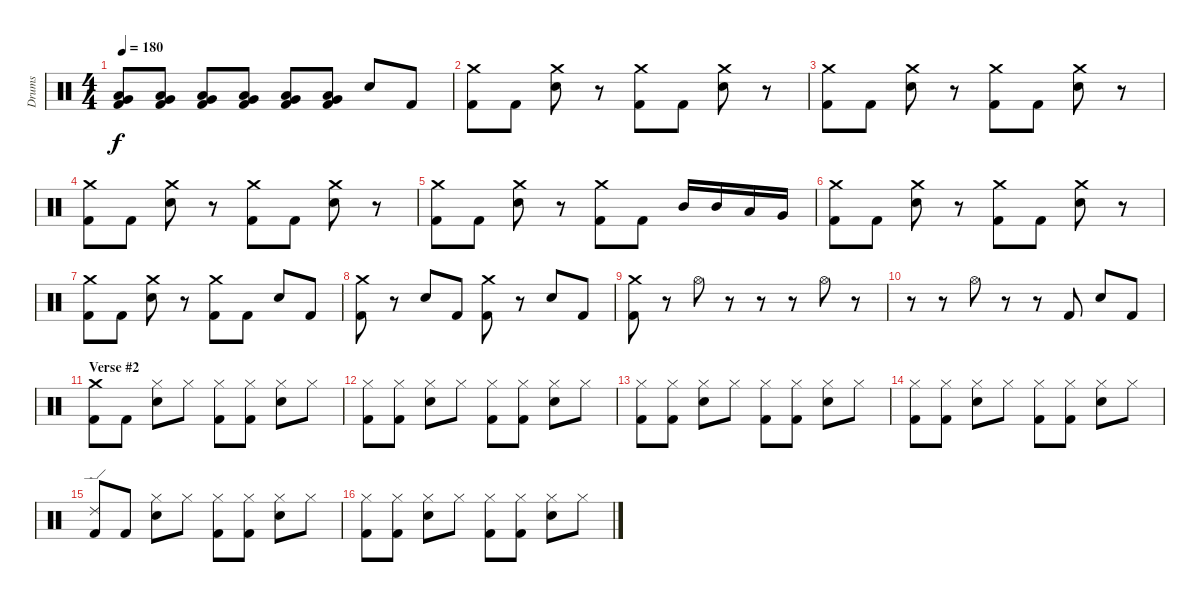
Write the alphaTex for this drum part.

\track ("Drums" "Drums") {instrument percussion}
\staff {score}
\articulation defaults
\ts (4 4)
\tempo 180
\clef neutral
\ks c
("Low Tom (hit)" "Very Low Tom (hit)" "Kick (hit) 2").8{dy f} ("Low Tom (hit)" "Very Low Tom (hit)" "Kick (hit) 2").8 ("Low Tom (hit)" "Very Low Tom (hit)" "Kick (hit) 2").8 ("Low Tom (hit)" "Very Low Tom (hit)" "Kick (hit) 2").8 ("Low Tom (hit)" "Very Low Tom (hit)" "Kick (hit) 2").8 ("Low Tom (hit)" "Very Low Tom (hit)" "Kick (hit) 2").8 "Electric Snare (hit)".8 "Kick (hit) 2".8 |
("Crash medium (hit)" "Kick (hit) 2").8 "Kick (hit) 2".8 ("Crash medium (hit)" "Electric Snare (hit)").8 r.8 ("Crash medium (hit)" "Kick (hit) 2").8 "Kick (hit) 2".8 ("Crash medium (hit)" "Electric Snare (hit)").8 r.8 |
("Crash medium (hit)" "Kick (hit) 2").8 "Kick (hit) 2".8 ("Crash medium (hit)" "Electric Snare (hit)").8 r.8 ("Crash medium (hit)" "Kick (hit) 2").8 "Kick (hit) 2".8 ("Crash medium (hit)" "Electric Snare (hit)").8 r.8 |
("Crash medium (hit)" "Kick (hit) 2").8 "Kick (hit) 2".8 ("Crash medium (hit)" "Electric Snare (hit)").8 r.8 ("Crash medium (hit)" "Kick (hit) 2").8 "Kick (hit) 2".8 ("Crash medium (hit)" "Electric Snare (hit)").8 r.8 |
("Crash medium (hit)" "Kick (hit) 2").8 "Kick (hit) 2".8 ("Crash medium (hit)" "Electric Snare (hit)").8 r.8 ("Crash medium (hit)" "Kick (hit) 2").8 "Kick (hit) 2".8 "Mid Tom (hit)".16 "Mid Tom (hit)".16 "Low Tom (hit)".16 "Very Low Tom (hit)".16 |
("Crash medium (hit)" "Kick (hit) 2").8 "Kick (hit) 2".8 ("Crash medium (hit)" "Electric Snare (hit)").8 r.8 ("Crash medium (hit)" "Kick (hit) 2").8 "Kick (hit) 2".8 ("Crash medium (hit)" "Electric Snare (hit)").8 r.8 |
("Crash medium (hit)" "Kick (hit) 2").8 "Kick (hit) 2".8 ("Crash medium (hit)" "Electric Snare (hit)").8 r.8 ("Crash medium (hit)" "Kick (hit) 2").8 "Kick (hit) 2".8 "Electric Snare (hit)".8 "Kick (hit) 2".8 |
("Crash medium (hit)" "Kick (hit) 2").8 r.8 "Electric Snare (hit)".8 "Kick (hit) 2".8 ("Crash medium (hit)" "Kick (hit) 2").8 r.8 "Electric Snare (hit)".8 "Kick (hit) 2".8 |
("Crash medium (hit)" "Kick (hit) 2").8 r.8 "Hi-Hat (open)".8 r.8 r.8 r.8 "Hi-Hat (open)".8 r.8 |
r.8 r.8 "Hi-Hat (open)".8 r.8 r.8 "Kick (hit) 2".8 "Electric Snare (hit)".8 "Kick (hit) 2".8 |
\section ("" "Verse #2")
("Crash medium (hit)" "Kick (hit) 2").8 "Kick (hit) 2".8 ("Hi-Hat (closed)" "Electric Snare (hit)").8 "Hi-Hat (closed)".8 ("Hi-Hat (closed)" "Kick (hit) 2").8 ("Hi-Hat (closed)" "Kick (hit) 2").8 ("Hi-Hat (closed)" "Electric Snare (hit)").8 "Hi-Hat (closed)".8 |
("Hi-Hat (closed)" "Kick (hit) 2").8 ("Hi-Hat (closed)" "Kick (hit) 2").8 ("Hi-Hat (closed)" "Electric Snare (hit)").8 "Hi-Hat (closed)".8 ("Hi-Hat (closed)" "Kick (hit) 2").8 ("Hi-Hat (closed)" "Kick (hit) 2").8 ("Hi-Hat (closed)" "Electric Snare (hit)").8 "Hi-Hat (closed)".8 |
("Hi-Hat (closed)" "Kick (hit) 2").8 ("Hi-Hat (closed)" "Kick (hit) 2").8 ("Hi-Hat (closed)" "Electric Snare (hit)").8 "Hi-Hat (closed)".8 ("Hi-Hat (closed)" "Kick (hit) 2").8 ("Hi-Hat (closed)" "Kick (hit) 2").8 ("Hi-Hat (closed)" "Electric Snare (hit)").8 "Hi-Hat (closed)".8 |
("Hi-Hat (closed)" "Kick (hit) 2").8 ("Hi-Hat (closed)" "Kick (hit) 2").8 ("Hi-Hat (closed)" "Electric Snare (hit)").8 "Hi-Hat (closed)".8 ("Hi-Hat (closed)" "Kick (hit) 2").8 ("Hi-Hat (closed)" "Kick (hit) 2").8 ("Hi-Hat (closed)" "Electric Snare (hit)").8 "Hi-Hat (closed)".8 |
("Ride (edge) 2" "Kick (hit) 2").8 "Kick (hit) 2".8 ("Hi-Hat (closed)" "Electric Snare (hit)").8 "Hi-Hat (closed)".8 ("Hi-Hat (closed)" "Kick (hit) 2").8 ("Hi-Hat (closed)" "Kick (hit) 2").8 ("Hi-Hat (closed)" "Electric Snare (hit)").8 "Hi-Hat (closed)".8 |
("Hi-Hat (closed)" "Kick (hit) 2").8 ("Hi-Hat (closed)" "Kick (hit) 2").8 ("Hi-Hat (closed)" "Electric Snare (hit)").8 "Hi-Hat (closed)".8 ("Hi-Hat (closed)" "Kick (hit) 2").8 ("Hi-Hat (closed)" "Kick (hit) 2").8 ("Hi-Hat (closed)" "Electric Snare (hit)").8 "Hi-Hat (closed)".8
